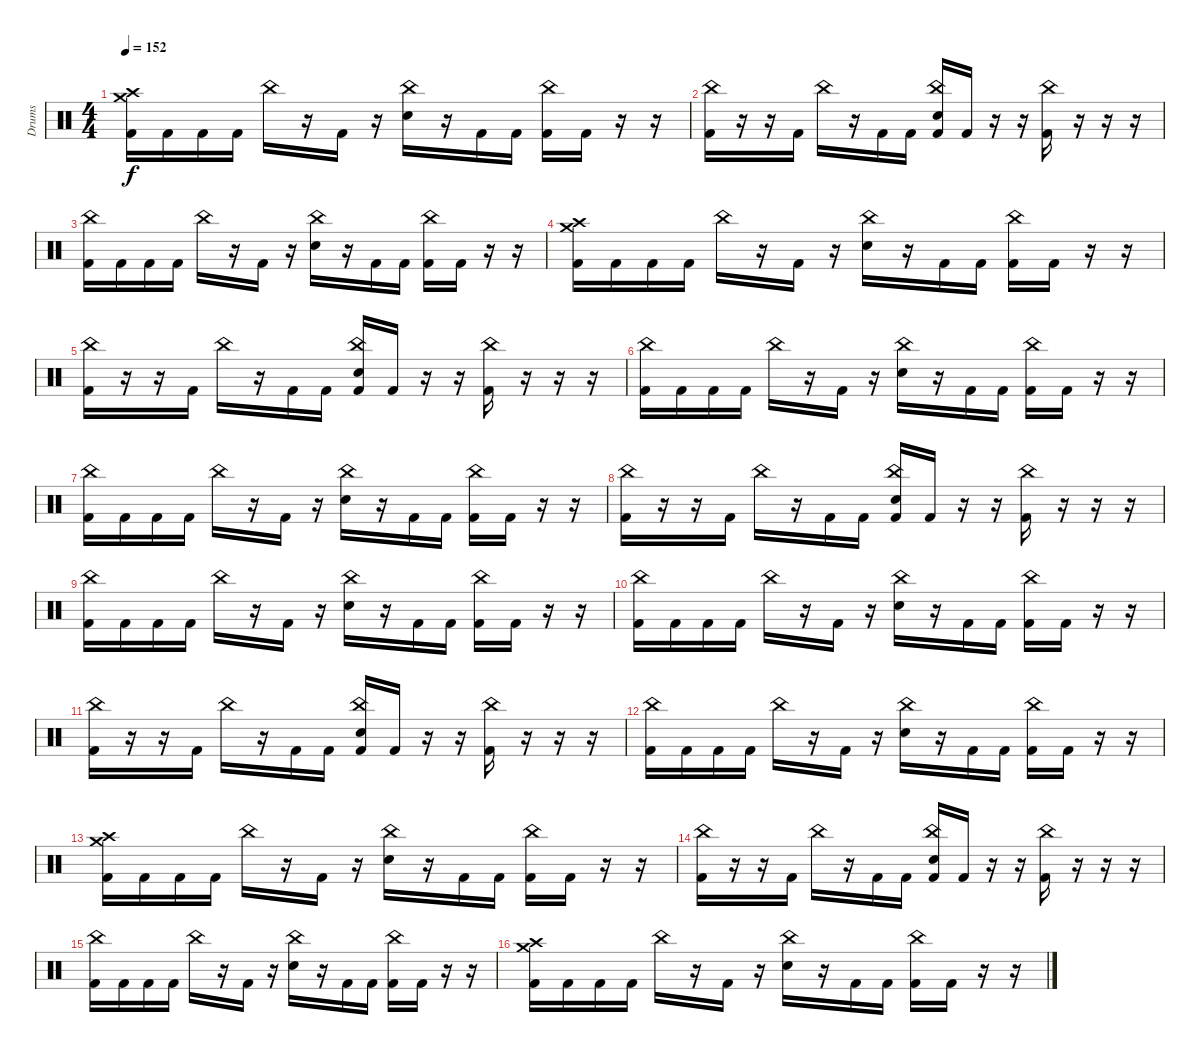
\track ("Drums" "Drums") {instrument percussion}
\staff {score}
\articulation defaults
\ts (4 4)
\tempo 152
\clef neutral
\ks c
("Crash medium (hit)" "Crash high (hit)" "Kick (hit) 2").16{dy f} "Kick (hit) 2".16 "Kick (hit) 2".16 "Kick (hit) 2".16 "China (hit)".16 r.16 "Kick (hit) 2".16 r.16 ("China (hit)" "Electric Snare (hit)").16 r.16 "Kick (hit) 2".16 "Kick (hit) 2".16 ("China (hit)" "Kick (hit) 2").16 "Kick (hit) 2".16 r.16 r.16 |
("China (hit)" "Kick (hit) 2").16 r.16 r.16 "Kick (hit) 2".16 "China (hit)".16 r.16 "Kick (hit) 2".16 "Kick (hit) 2".16 ("China (hit)" "Electric Snare (hit)" "Kick (hit) 2").16 "Kick (hit) 2".16 r.16 r.16 ("China (hit)" "Kick (hit) 2").16 r.16 r.16 r.16 |
("China (hit)" "Kick (hit) 2").16 "Kick (hit) 2".16 "Kick (hit) 2".16 "Kick (hit) 2".16 "China (hit)".16 r.16 "Kick (hit) 2".16 r.16 ("China (hit)" "Electric Snare (hit)").16 r.16 "Kick (hit) 2".16 "Kick (hit) 2".16 ("China (hit)" "Kick (hit) 2").16 "Kick (hit) 2".16 r.16 r.16 |
("Crash medium (hit)" "Crash high (hit)" "Kick (hit) 2").16 "Kick (hit) 2".16 "Kick (hit) 2".16 "Kick (hit) 2".16 "China (hit)".16 r.16 "Kick (hit) 2".16 r.16 ("China (hit)" "Electric Snare (hit)").16 r.16 "Kick (hit) 2".16 "Kick (hit) 2".16 ("China (hit)" "Kick (hit) 2").16 "Kick (hit) 2".16 r.16 r.16 |
("China (hit)" "Kick (hit) 2").16 r.16 r.16 "Kick (hit) 2".16 "China (hit)".16 r.16 "Kick (hit) 2".16 "Kick (hit) 2".16 ("China (hit)" "Electric Snare (hit)" "Kick (hit) 2").16 "Kick (hit) 2".16 r.16 r.16 ("China (hit)" "Kick (hit) 2").16 r.16 r.16 r.16 |
("China (hit)" "Kick (hit) 2").16 "Kick (hit) 2".16 "Kick (hit) 2".16 "Kick (hit) 2".16 "China (hit)".16 r.16 "Kick (hit) 2".16 r.16 ("China (hit)" "Electric Snare (hit)").16 r.16 "Kick (hit) 2".16 "Kick (hit) 2".16 ("China (hit)" "Kick (hit) 2").16 "Kick (hit) 2".16 r.16 r.16 |
("China (hit)" "Kick (hit) 2").16 "Kick (hit) 2".16 "Kick (hit) 2".16 "Kick (hit) 2".16 "China (hit)".16 r.16 "Kick (hit) 2".16 r.16 ("China (hit)" "Electric Snare (hit)").16 r.16 "Kick (hit) 2".16 "Kick (hit) 2".16 ("China (hit)" "Kick (hit) 2").16 "Kick (hit) 2".16 r.16 r.16 |
("China (hit)" "Kick (hit) 2").16 r.16 r.16 "Kick (hit) 2".16 "China (hit)".16 r.16 "Kick (hit) 2".16 "Kick (hit) 2".16 ("China (hit)" "Electric Snare (hit)" "Kick (hit) 2").16 "Kick (hit) 2".16 r.16 r.16 ("China (hit)" "Kick (hit) 2").16 r.16 r.16 r.16 |
("China (hit)" "Kick (hit) 2").16 "Kick (hit) 2".16 "Kick (hit) 2".16 "Kick (hit) 2".16 "China (hit)".16 r.16 "Kick (hit) 2".16 r.16 ("China (hit)" "Electric Snare (hit)").16 r.16 "Kick (hit) 2".16 "Kick (hit) 2".16 ("China (hit)" "Kick (hit) 2").16 "Kick (hit) 2".16 r.16 r.16 |
("China (hit)" "Kick (hit) 2").16 "Kick (hit) 2".16 "Kick (hit) 2".16 "Kick (hit) 2".16 "China (hit)".16 r.16 "Kick (hit) 2".16 r.16 ("China (hit)" "Electric Snare (hit)").16 r.16 "Kick (hit) 2".16 "Kick (hit) 2".16 ("China (hit)" "Kick (hit) 2").16 "Kick (hit) 2".16 r.16 r.16 |
("China (hit)" "Kick (hit) 2").16 r.16 r.16 "Kick (hit) 2".16 "China (hit)".16 r.16 "Kick (hit) 2".16 "Kick (hit) 2".16 ("China (hit)" "Electric Snare (hit)" "Kick (hit) 2").16 "Kick (hit) 2".16 r.16 r.16 ("China (hit)" "Kick (hit) 2").16 r.16 r.16 r.16 |
("China (hit)" "Kick (hit) 2").16 "Kick (hit) 2".16 "Kick (hit) 2".16 "Kick (hit) 2".16 "China (hit)".16 r.16 "Kick (hit) 2".16 r.16 ("China (hit)" "Electric Snare (hit)").16 r.16 "Kick (hit) 2".16 "Kick (hit) 2".16 ("China (hit)" "Kick (hit) 2").16 "Kick (hit) 2".16 r.16 r.16 |
("Crash medium (hit)" "Crash high (hit)" "Kick (hit) 2").16 "Kick (hit) 2".16 "Kick (hit) 2".16 "Kick (hit) 2".16 "China (hit)".16 r.16 "Kick (hit) 2".16 r.16 ("China (hit)" "Electric Snare (hit)").16 r.16 "Kick (hit) 2".16 "Kick (hit) 2".16 ("China (hit)" "Kick (hit) 2").16 "Kick (hit) 2".16 r.16 r.16 |
("China (hit)" "Kick (hit) 2").16 r.16 r.16 "Kick (hit) 2".16 "China (hit)".16 r.16 "Kick (hit) 2".16 "Kick (hit) 2".16 ("China (hit)" "Electric Snare (hit)" "Kick (hit) 2").16 "Kick (hit) 2".16 r.16 r.16 ("China (hit)" "Kick (hit) 2").16 r.16 r.16 r.16 |
("China (hit)" "Kick (hit) 2").16 "Kick (hit) 2".16 "Kick (hit) 2".16 "Kick (hit) 2".16 "China (hit)".16 r.16 "Kick (hit) 2".16 r.16 ("China (hit)" "Electric Snare (hit)").16 r.16 "Kick (hit) 2".16 "Kick (hit) 2".16 ("China (hit)" "Kick (hit) 2").16 "Kick (hit) 2".16 r.16 r.16 |
("Crash medium (hit)" "Crash high (hit)" "Kick (hit) 2").16 "Kick (hit) 2".16 "Kick (hit) 2".16 "Kick (hit) 2".16 "China (hit)".16 r.16 "Kick (hit) 2".16 r.16 ("China (hit)" "Electric Snare (hit)").16 r.16 "Kick (hit) 2".16 "Kick (hit) 2".16 ("China (hit)" "Kick (hit) 2").16 "Kick (hit) 2".16 r.16 r.16
